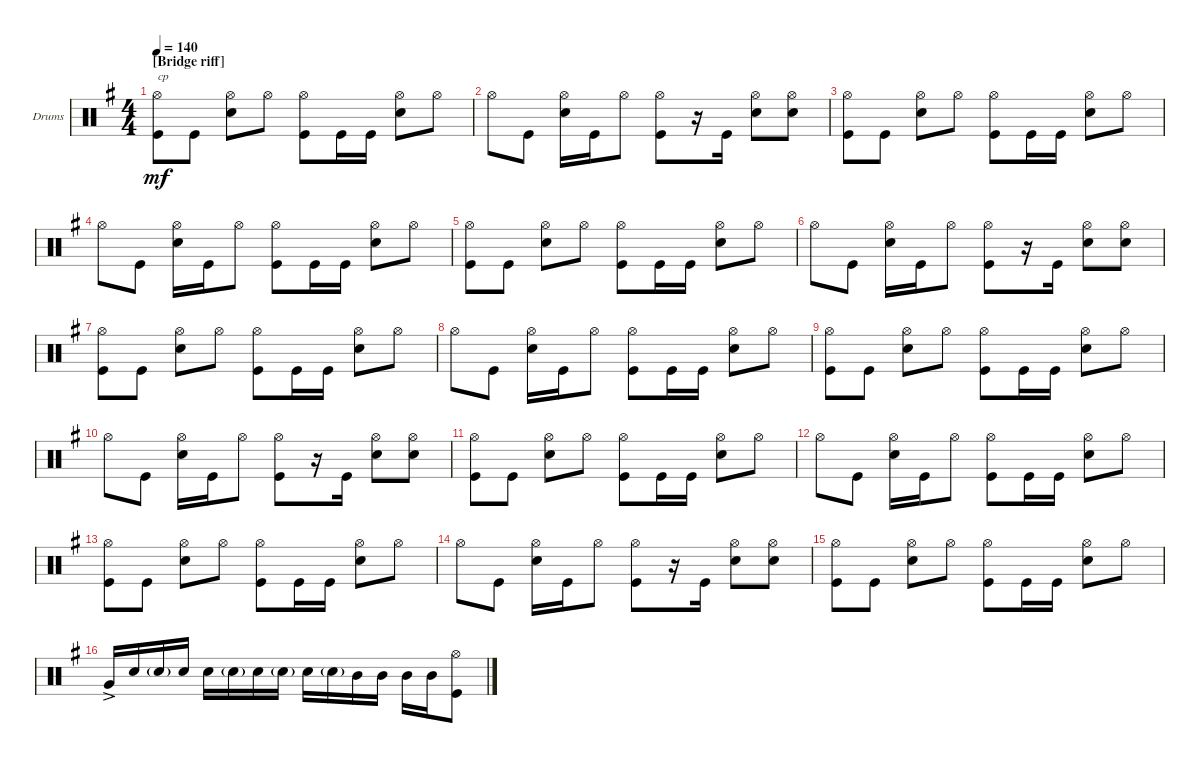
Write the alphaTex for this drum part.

\defaultSystemsLayout 4
\bracketExtendMode groupsimilarinstruments
\firstSystemTrackNameOrientation horizontal
\otherSystemsTrackNameOrientation horizontal
\track ("Drumkit" "Drums") {instrument percussion}
\staff {score}
\articulation defaults
\ts (4 4)
\section ("" "[Bridge riff]")
\tempo 140
\clef neutral
\ks g
("Hi-Hat (open)" "Kick (hit)").8{txt "cp" dy mf} "Kick (hit)".8 ("Hi-Hat (open)" "Snare (hit) 2").8 "Hi-Hat (open)".8 ("Hi-Hat (open)" "Kick (hit)").8 "Kick (hit)".16 "Kick (hit)".16 ("Hi-Hat (open)" "Snare (hit) 2").8 "Hi-Hat (open)".8 |
"Hi-Hat (open)".8 "Kick (hit)".8 ("Hi-Hat (open)" "Snare (hit) 2").16 "Kick (hit)".16 "Hi-Hat (open)".8 ("Hi-Hat (open)" "Kick (hit)").8 r.16 "Kick (hit)".16 ("Hi-Hat (open)" "Snare (hit) 2").8 ("Hi-Hat (open)" "Snare (hit) 2").8 |
("Hi-Hat (open)" "Kick (hit)").8 "Kick (hit)".8 ("Hi-Hat (open)" "Snare (hit) 2").8 "Hi-Hat (open)".8 ("Hi-Hat (open)" "Kick (hit)").8 "Kick (hit)".16 "Kick (hit)".16 ("Hi-Hat (open)" "Snare (hit) 2").8 "Hi-Hat (open)".8 |
"Hi-Hat (open)".8 "Kick (hit)".8 ("Hi-Hat (open)" "Snare (hit) 2").16 "Kick (hit)".16 "Hi-Hat (open)".8 ("Hi-Hat (open)" "Kick (hit)").8 "Kick (hit)".16 "Kick (hit)".16 ("Hi-Hat (open)" "Snare (hit) 2").8 "Hi-Hat (open)".8 |
("Hi-Hat (open)" "Kick (hit)").8 "Kick (hit)".8 ("Hi-Hat (open)" "Snare (hit) 2").8 "Hi-Hat (open)".8 ("Hi-Hat (open)" "Kick (hit)").8 "Kick (hit)".16 "Kick (hit)".16 ("Hi-Hat (open)" "Snare (hit) 2").8 "Hi-Hat (open)".8 |
"Hi-Hat (open)".8 "Kick (hit)".8 ("Hi-Hat (open)" "Snare (hit) 2").16 "Kick (hit)".16 "Hi-Hat (open)".8 ("Hi-Hat (open)" "Kick (hit)").8 r.16 "Kick (hit)".16 ("Hi-Hat (open)" "Snare (hit) 2").8 ("Hi-Hat (open)" "Snare (hit) 2").8 |
("Hi-Hat (open)" "Kick (hit)").8 "Kick (hit)".8 ("Hi-Hat (open)" "Snare (hit) 2").8 "Hi-Hat (open)".8 ("Hi-Hat (open)" "Kick (hit)").8 "Kick (hit)".16 "Kick (hit)".16 ("Hi-Hat (open)" "Snare (hit) 2").8 "Hi-Hat (open)".8 |
"Hi-Hat (open)".8 "Kick (hit)".8 ("Hi-Hat (open)" "Snare (hit) 2").16 "Kick (hit)".16 "Hi-Hat (open)".8 ("Hi-Hat (open)" "Kick (hit)").8 "Kick (hit)".16 "Kick (hit)".16 ("Hi-Hat (open)" "Snare (hit) 2").8 "Hi-Hat (open)".8 |
("Hi-Hat (open)" "Kick (hit)").8 "Kick (hit)".8 ("Hi-Hat (open)" "Snare (hit) 2").8 "Hi-Hat (open)".8 ("Hi-Hat (open)" "Kick (hit)").8 "Kick (hit)".16 "Kick (hit)".16 ("Hi-Hat (open)" "Snare (hit) 2").8 "Hi-Hat (open)".8 |
"Hi-Hat (open)".8 "Kick (hit)".8 ("Hi-Hat (open)" "Snare (hit) 2").16 "Kick (hit)".16 "Hi-Hat (open)".8 ("Hi-Hat (open)" "Kick (hit)").8 r.16 "Kick (hit)".16 ("Hi-Hat (open)" "Snare (hit) 2").8 ("Hi-Hat (open)" "Snare (hit) 2").8 |
("Hi-Hat (open)" "Kick (hit)").8 "Kick (hit)".8 ("Hi-Hat (open)" "Snare (hit) 2").8 "Hi-Hat (open)".8 ("Hi-Hat (open)" "Kick (hit)").8 "Kick (hit)".16 "Kick (hit)".16 ("Hi-Hat (open)" "Snare (hit) 2").8 "Hi-Hat (open)".8 |
"Hi-Hat (open)".8 "Kick (hit)".8 ("Hi-Hat (open)" "Snare (hit) 2").16 "Kick (hit)".16 "Hi-Hat (open)".8 ("Hi-Hat (open)" "Kick (hit)").8 "Kick (hit)".16 "Kick (hit)".16 ("Hi-Hat (open)" "Snare (hit) 2").8 "Hi-Hat (open)".8 |
("Hi-Hat (open)" "Kick (hit)").8 "Kick (hit)".8 ("Hi-Hat (open)" "Snare (hit) 2").8 "Hi-Hat (open)".8 ("Hi-Hat (open)" "Kick (hit)").8 "Kick (hit)".16 "Kick (hit)".16 ("Hi-Hat (open)" "Snare (hit) 2").8 "Hi-Hat (open)".8 |
"Hi-Hat (open)".8 "Kick (hit)".8 ("Hi-Hat (open)" "Snare (hit) 2").16 "Kick (hit)".16 "Hi-Hat (open)".8 ("Hi-Hat (open)" "Kick (hit)").8 r.16 "Kick (hit)".16 ("Hi-Hat (open)" "Snare (hit) 2").8 ("Hi-Hat (open)" "Snare (hit) 2").8 |
("Hi-Hat (open)" "Kick (hit)").8 "Kick (hit)".8 ("Hi-Hat (open)" "Snare (hit) 2").8 "Hi-Hat (open)".8 ("Hi-Hat (open)" "Kick (hit)").8 "Kick (hit)".16 "Kick (hit)".16 ("Hi-Hat (open)" "Snare (hit) 2").8 "Hi-Hat (open)".8 |
"Very Low Tom (hit)"{ac}.16 "Snare (hit) 2".16 "Snare (hit) 2"{g}.16 "Snare (hit) 2".16 "Snare (hit) 2".16 "Snare (hit) 2"{g}.16 "Snare (hit) 2".16 "Snare (hit) 2"{g}.16 "Snare (hit) 2".16 "Snare (hit) 2"{g}.16 "Mid Tom (hit)".16 "Mid Tom (hit)".16 "Mid Tom (hit)".16 "Mid Tom (hit)".16 ("Kick (hit)" "Hi-Hat (open)").8
